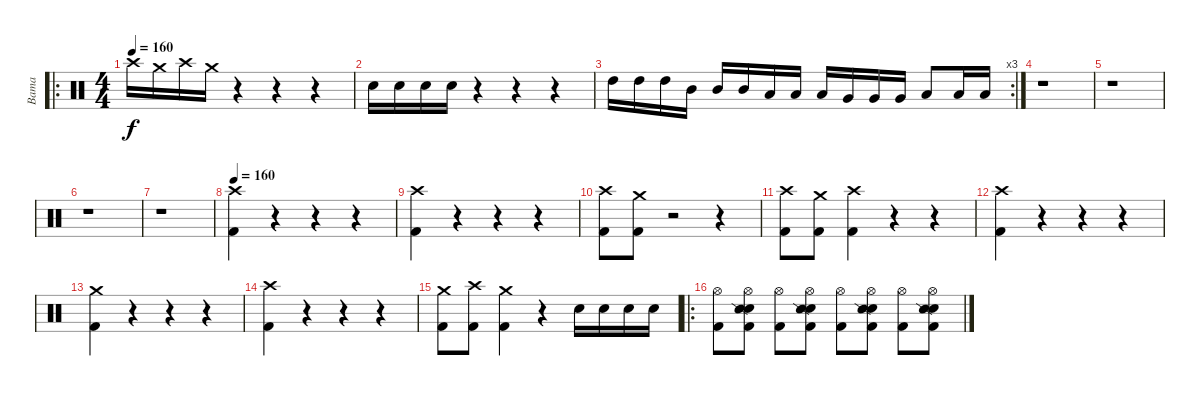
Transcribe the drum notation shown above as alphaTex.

\track ("Bama" "Bama") {instrument percussion}
\staff {score}
\articulation defaults
\ro
\ts (4 4)
\tempo 160
\tempo 120
\tempo 160
\clef neutral
\ks c "Crash high (hit)".16{dy f volume 16} "Crash medium (hit)".16 "Crash high (hit)".16 "Crash medium (hit)".16
r.4 r.4 r.4 |
"Electric Snare (hit)".16 "Electric Snare (hit)".16 "Electric Snare (hit)".16 "Electric Snare (hit)".16 r.4 r.4 r.4 |
\rc 3 "High Tom (hit)".16 "High Tom (hit)".16 "High Tom (hit)".16 "Mid Tom (hit)".16 "Mid Tom (hit)".16 "Mid Tom (hit)".16 "Low Tom (hit)".16 "Low Tom (hit)".16 "Low Tom (hit)".16 "Very Low Tom (hit)".16 "Very Low Tom (hit)".16 "Very Low Tom (hit)".16 "Low Floor Tom (hit)".8 "Low Floor Tom (hit)".16 "Low Floor Tom (hit)".16
|
r.1 |
r.1 |
r.1 |
r.1 |
\tempo 160
("Crash high (hit)" "Kick (hit) 2").4 r.4 r.4 r.4 |
("Crash high (hit)" "Kick (hit) 2").4 r.4 r.4 r.4 |
("Crash high (hit)" "Kick (hit) 2").8 ("Crash medium (hit)" "Kick (hit) 2").8 r.2 r.4 |
("Crash high (hit)" "Kick (hit) 2").8 ("Crash medium (hit)" "Kick (hit) 2").8 ("Crash high (hit)" "Kick (hit) 2").4 r.4 r.4 |
("Crash high (hit)" "Kick (hit) 2").4 r.4 r.4 r.4 |
("Crash medium (hit)" "Kick (hit) 2").4 r.4 r.4 r.4 |
("Crash high (hit)" "Kick (hit) 2").4 r.4 r.4 r.4 |
("Crash medium (hit)" "Kick (hit) 2").8 ("Crash high (hit)" "Kick (hit) 2").8 ("Crash medium (hit)" "Kick (hit) 2").4 r.4 "Electric Snare (hit)".16 "Electric Snare (hit)".16 "Electric Snare (hit)".16 "Electric Snare (hit)".16 |
\ro
("Hi-Hat (open)" "Kick (hit) 2").8 ("Hi-Hat (open)" "Electric Snare (hit)" "Snare (side stick) 2" "Kick (hit) 2").8 ("Hi-Hat (open)" "Kick (hit) 2").8 ("Hi-Hat (open)" "Electric Snare (hit)" "Snare (side stick) 2" "Kick (hit) 2").8 ("Hi-Hat (open)" "Kick (hit) 2").8 ("Hi-Hat (open)" "Electric Snare (hit)" "Snare (side stick) 2" "Kick (hit) 2").8 ("Hi-Hat (open)" "Kick (hit) 2").8 ("Hi-Hat (open)" "Electric Snare (hit)" "Snare (side stick) 2" "Kick (hit) 2").8
